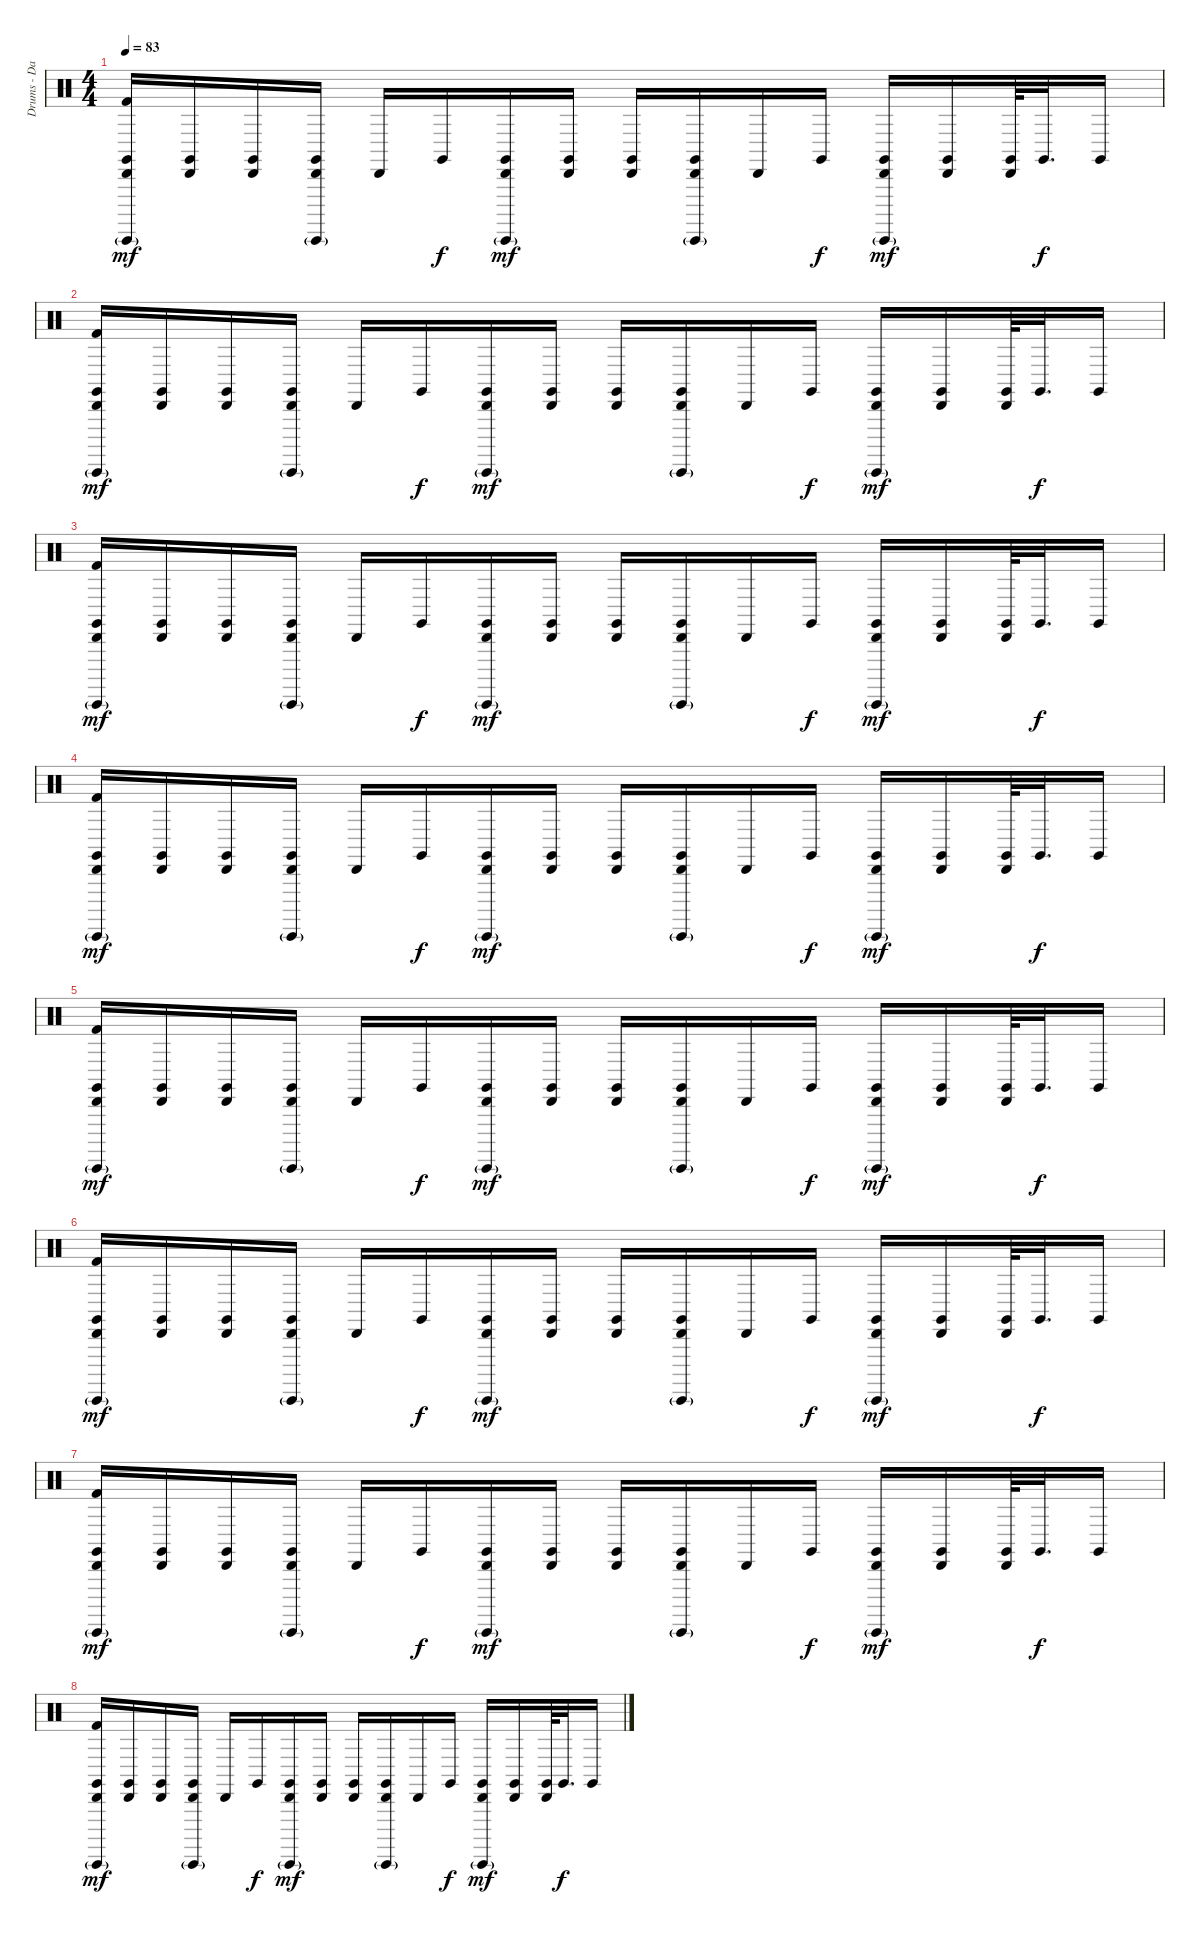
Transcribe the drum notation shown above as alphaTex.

\track ("Drums - Danny Carey" "Drums - Da") {instrument percussion}
\staff {score}
\articulation defaults
\ts (4 4)
\tempo 83
\clef neutral
\ks c
("Claves (hit)" "Kick (hit) 2" "Guiro (hit)"{g} "Cabasa (hit)").16{dy mf} ("Claves (hit)" "Cabasa (hit)").16 ("Claves (hit)" "Cabasa (hit)").16 ("Claves (hit)" "Guiro (hit)"{g} "Cabasa (hit)").16 "Cabasa (hit)".16 "Claves (hit)".16{dy f} ("Claves (hit)" "Guiro (hit)"{g} "Cabasa (hit)").16{dy mf} ("Claves (hit)" "Cabasa (hit)").16 ("Claves (hit)" "Cabasa (hit)").16 ("Claves (hit)" "Guiro (hit)"{g} "Cabasa (hit)").16 "Cabasa (hit)".16 "Claves (hit)".16{dy f} ("Claves (hit)" "Guiro (hit)"{g} "Cabasa (hit)").16{dy mf} ("Claves (hit)" "Cabasa (hit)").16 ("Claves (hit)" "Cabasa (hit)").64 "Claves (hit)".32{d dy f} "Claves (hit)".16 |
("Claves (hit)" "Kick (hit) 2" "Guiro (hit)"{g} "Cabasa (hit)").16{dy mf} ("Claves (hit)" "Cabasa (hit)").16 ("Claves (hit)" "Cabasa (hit)").16 ("Claves (hit)" "Guiro (hit)"{g} "Cabasa (hit)").16 "Cabasa (hit)".16 "Claves (hit)".16{dy f} ("Claves (hit)" "Guiro (hit)"{g} "Cabasa (hit)").16{dy mf} ("Claves (hit)" "Cabasa (hit)").16 ("Claves (hit)" "Cabasa (hit)").16 ("Claves (hit)" "Guiro (hit)"{g} "Cabasa (hit)").16 "Cabasa (hit)".16 "Claves (hit)".16{dy f} ("Claves (hit)" "Guiro (hit)"{g} "Cabasa (hit)").16{dy mf} ("Claves (hit)" "Cabasa (hit)").16 ("Claves (hit)" "Cabasa (hit)").64 "Claves (hit)".32{d dy f} "Claves (hit)".16 |
("Claves (hit)" "Kick (hit) 2" "Guiro (hit)"{g} "Cabasa (hit)").16{dy mf} ("Claves (hit)" "Cabasa (hit)").16 ("Claves (hit)" "Cabasa (hit)").16 ("Claves (hit)" "Guiro (hit)"{g} "Cabasa (hit)").16 "Cabasa (hit)".16 "Claves (hit)".16{dy f} ("Claves (hit)" "Guiro (hit)"{g} "Cabasa (hit)").16{dy mf} ("Claves (hit)" "Cabasa (hit)").16 ("Claves (hit)" "Cabasa (hit)").16 ("Claves (hit)" "Guiro (hit)"{g} "Cabasa (hit)").16 "Cabasa (hit)".16 "Claves (hit)".16{dy f} ("Claves (hit)" "Guiro (hit)"{g} "Cabasa (hit)").16{dy mf} ("Claves (hit)" "Cabasa (hit)").16 ("Claves (hit)" "Cabasa (hit)").64 "Claves (hit)".32{d dy f} "Claves (hit)".16 |
("Claves (hit)" "Kick (hit) 2" "Guiro (hit)"{g} "Cabasa (hit)").16{dy mf} ("Claves (hit)" "Cabasa (hit)").16 ("Claves (hit)" "Cabasa (hit)").16 ("Claves (hit)" "Guiro (hit)"{g} "Cabasa (hit)").16 "Cabasa (hit)".16 "Claves (hit)".16{dy f} ("Claves (hit)" "Guiro (hit)"{g} "Cabasa (hit)").16{dy mf} ("Claves (hit)" "Cabasa (hit)").16 ("Claves (hit)" "Cabasa (hit)").16 ("Claves (hit)" "Guiro (hit)"{g} "Cabasa (hit)").16 "Cabasa (hit)".16 "Claves (hit)".16{dy f} ("Claves (hit)" "Guiro (hit)"{g} "Cabasa (hit)").16{dy mf} ("Claves (hit)" "Cabasa (hit)").16 ("Claves (hit)" "Cabasa (hit)").64 "Claves (hit)".32{d dy f} "Claves (hit)".16 |
("Claves (hit)" "Kick (hit) 2" "Guiro (hit)"{g} "Cabasa (hit)").16{dy mf} ("Claves (hit)" "Cabasa (hit)").16 ("Claves (hit)" "Cabasa (hit)").16 ("Claves (hit)" "Guiro (hit)"{g} "Cabasa (hit)").16 "Cabasa (hit)".16 "Claves (hit)".16{dy f} ("Claves (hit)" "Guiro (hit)"{g} "Cabasa (hit)").16{dy mf} ("Claves (hit)" "Cabasa (hit)").16 ("Claves (hit)" "Cabasa (hit)").16 ("Claves (hit)" "Guiro (hit)"{g} "Cabasa (hit)").16 "Cabasa (hit)".16 "Claves (hit)".16{dy f} ("Claves (hit)" "Guiro (hit)"{g} "Cabasa (hit)").16{dy mf} ("Claves (hit)" "Cabasa (hit)").16 ("Claves (hit)" "Cabasa (hit)").64 "Claves (hit)".32{d dy f} "Claves (hit)".16 |
("Claves (hit)" "Kick (hit) 2" "Guiro (hit)"{g} "Cabasa (hit)").16{dy mf} ("Claves (hit)" "Cabasa (hit)").16 ("Claves (hit)" "Cabasa (hit)").16 ("Claves (hit)" "Guiro (hit)"{g} "Cabasa (hit)").16 "Cabasa (hit)".16 "Claves (hit)".16{dy f} ("Claves (hit)" "Guiro (hit)"{g} "Cabasa (hit)").16{dy mf} ("Claves (hit)" "Cabasa (hit)").16 ("Claves (hit)" "Cabasa (hit)").16 ("Claves (hit)" "Guiro (hit)"{g} "Cabasa (hit)").16 "Cabasa (hit)".16 "Claves (hit)".16{dy f} ("Claves (hit)" "Guiro (hit)"{g} "Cabasa (hit)").16{dy mf} ("Claves (hit)" "Cabasa (hit)").16 ("Claves (hit)" "Cabasa (hit)").64 "Claves (hit)".32{d dy f} "Claves (hit)".16 |
("Claves (hit)" "Kick (hit) 2" "Guiro (hit)"{g} "Cabasa (hit)").16{dy mf} ("Claves (hit)" "Cabasa (hit)").16 ("Claves (hit)" "Cabasa (hit)").16 ("Claves (hit)" "Guiro (hit)"{g} "Cabasa (hit)").16 "Cabasa (hit)".16 "Claves (hit)".16{dy f} ("Claves (hit)" "Guiro (hit)"{g} "Cabasa (hit)").16{dy mf} ("Claves (hit)" "Cabasa (hit)").16 ("Claves (hit)" "Cabasa (hit)").16 ("Claves (hit)" "Guiro (hit)"{g} "Cabasa (hit)").16 "Cabasa (hit)".16 "Claves (hit)".16{dy f} ("Claves (hit)" "Guiro (hit)"{g} "Cabasa (hit)").16{dy mf} ("Claves (hit)" "Cabasa (hit)").16 ("Claves (hit)" "Cabasa (hit)").64 "Claves (hit)".32{d dy f} "Claves (hit)".16 |
("Claves (hit)" "Kick (hit) 2" "Guiro (hit)"{g} "Cabasa (hit)").16{dy mf} ("Claves (hit)" "Cabasa (hit)").16 ("Claves (hit)" "Cabasa (hit)").16 ("Claves (hit)" "Guiro (hit)"{g} "Cabasa (hit)").16 "Cabasa (hit)".16 "Claves (hit)".16{dy f} ("Claves (hit)" "Guiro (hit)"{g} "Cabasa (hit)").16{dy mf} ("Claves (hit)" "Cabasa (hit)").16 ("Claves (hit)" "Cabasa (hit)").16 ("Claves (hit)" "Guiro (hit)"{g} "Cabasa (hit)").16 "Cabasa (hit)".16 "Claves (hit)".16{dy f} ("Claves (hit)" "Guiro (hit)"{g} "Cabasa (hit)").16{dy mf} ("Claves (hit)" "Cabasa (hit)").16 ("Claves (hit)" "Cabasa (hit)").64 "Claves (hit)".32{d dy f} "Claves (hit)".16
